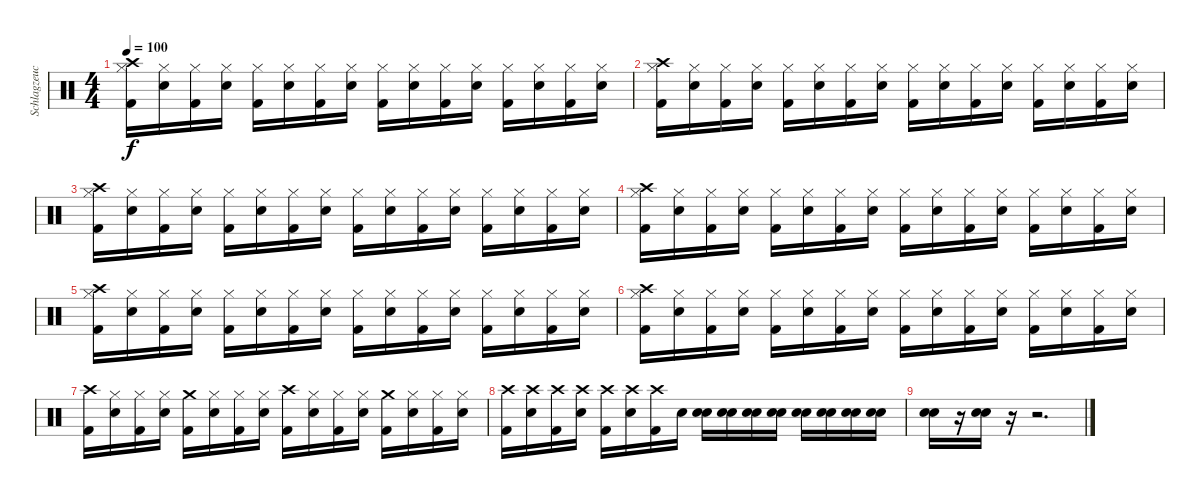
\track ("Schlagzeuch" "Schlagzeuc") {instrument percussion}
\staff {score}
\articulation defaults
\ts (4 4)
\tempo 100
\clef neutral
\ks c
("Hi-Hat (closed)" "Kick (hit) 2" "Crash high (hit)").16{dy f} ("Hi-Hat (closed)" "Snare (hit) 2").16 ("Hi-Hat (closed)" "Kick (hit) 2").16 ("Hi-Hat (closed)" "Snare (hit) 2").16 ("Hi-Hat (closed)" "Kick (hit) 2").16 ("Hi-Hat (closed)" "Snare (hit) 2").16 ("Hi-Hat (closed)" "Kick (hit) 2").16 ("Hi-Hat (closed)" "Snare (hit) 2").16 ("Hi-Hat (closed)" "Kick (hit) 2").16 ("Hi-Hat (closed)" "Snare (hit) 2").16 ("Hi-Hat (closed)" "Kick (hit) 2").16 ("Hi-Hat (closed)" "Snare (hit) 2").16 ("Hi-Hat (closed)" "Kick (hit) 2").16 ("Hi-Hat (closed)" "Snare (hit) 2").16 ("Hi-Hat (closed)" "Kick (hit) 2").16 ("Hi-Hat (closed)" "Snare (hit) 2").16 |
("Hi-Hat (closed)" "Kick (hit) 2" "Crash high (hit)").16 ("Hi-Hat (closed)" "Snare (hit) 2").16 ("Hi-Hat (closed)" "Kick (hit) 2").16 ("Hi-Hat (closed)" "Snare (hit) 2").16 ("Hi-Hat (closed)" "Kick (hit) 2").16 ("Hi-Hat (closed)" "Snare (hit) 2").16 ("Hi-Hat (closed)" "Kick (hit) 2").16 ("Hi-Hat (closed)" "Snare (hit) 2").16 ("Hi-Hat (closed)" "Kick (hit) 2").16 ("Hi-Hat (closed)" "Snare (hit) 2").16 ("Hi-Hat (closed)" "Kick (hit) 2").16 ("Hi-Hat (closed)" "Snare (hit) 2").16 ("Hi-Hat (closed)" "Kick (hit) 2").16 ("Hi-Hat (closed)" "Snare (hit) 2").16 ("Hi-Hat (closed)" "Kick (hit) 2").16 ("Hi-Hat (closed)" "Snare (hit) 2").16 |
("Hi-Hat (closed)" "Kick (hit) 2" "Crash high (hit)").16 ("Hi-Hat (closed)" "Snare (hit) 2").16 ("Hi-Hat (closed)" "Kick (hit) 2").16 ("Hi-Hat (closed)" "Snare (hit) 2").16 ("Hi-Hat (closed)" "Kick (hit) 2").16 ("Hi-Hat (closed)" "Snare (hit) 2").16 ("Hi-Hat (closed)" "Kick (hit) 2").16 ("Hi-Hat (closed)" "Snare (hit) 2").16 ("Hi-Hat (closed)" "Kick (hit) 2").16 ("Hi-Hat (closed)" "Snare (hit) 2").16 ("Hi-Hat (closed)" "Kick (hit) 2").16 ("Hi-Hat (closed)" "Snare (hit) 2").16 ("Hi-Hat (closed)" "Kick (hit) 2").16 ("Hi-Hat (closed)" "Snare (hit) 2").16 ("Hi-Hat (closed)" "Kick (hit) 2").16 ("Hi-Hat (closed)" "Snare (hit) 2").16 |
("Hi-Hat (closed)" "Kick (hit) 2" "Crash high (hit)").16 ("Hi-Hat (closed)" "Snare (hit) 2").16 ("Hi-Hat (closed)" "Kick (hit) 2").16 ("Hi-Hat (closed)" "Snare (hit) 2").16 ("Hi-Hat (closed)" "Kick (hit) 2").16 ("Hi-Hat (closed)" "Snare (hit) 2").16 ("Hi-Hat (closed)" "Kick (hit) 2").16 ("Hi-Hat (closed)" "Snare (hit) 2").16 ("Hi-Hat (closed)" "Kick (hit) 2").16 ("Hi-Hat (closed)" "Snare (hit) 2").16 ("Hi-Hat (closed)" "Kick (hit) 2").16 ("Hi-Hat (closed)" "Snare (hit) 2").16 ("Hi-Hat (closed)" "Kick (hit) 2").16 ("Hi-Hat (closed)" "Snare (hit) 2").16 ("Hi-Hat (closed)" "Kick (hit) 2").16 ("Hi-Hat (closed)" "Snare (hit) 2").16 |
("Hi-Hat (closed)" "Kick (hit) 2" "Crash high (hit)").16 ("Hi-Hat (closed)" "Snare (hit) 2").16 ("Hi-Hat (closed)" "Kick (hit) 2").16 ("Hi-Hat (closed)" "Snare (hit) 2").16 ("Hi-Hat (closed)" "Kick (hit) 2").16 ("Hi-Hat (closed)" "Snare (hit) 2").16 ("Hi-Hat (closed)" "Kick (hit) 2").16 ("Hi-Hat (closed)" "Snare (hit) 2").16 ("Hi-Hat (closed)" "Kick (hit) 2").16 ("Hi-Hat (closed)" "Snare (hit) 2").16 ("Hi-Hat (closed)" "Kick (hit) 2").16 ("Hi-Hat (closed)" "Snare (hit) 2").16 ("Hi-Hat (closed)" "Kick (hit) 2").16 ("Hi-Hat (closed)" "Snare (hit) 2").16 ("Hi-Hat (closed)" "Kick (hit) 2").16 ("Hi-Hat (closed)" "Snare (hit) 2").16 |
("Hi-Hat (closed)" "Kick (hit) 2" "Crash high (hit)").16 ("Hi-Hat (closed)" "Snare (hit) 2").16 ("Hi-Hat (closed)" "Kick (hit) 2").16 ("Hi-Hat (closed)" "Snare (hit) 2").16 ("Hi-Hat (closed)" "Kick (hit) 2").16 ("Hi-Hat (closed)" "Snare (hit) 2").16 ("Hi-Hat (closed)" "Kick (hit) 2").16 ("Hi-Hat (closed)" "Snare (hit) 2").16 ("Hi-Hat (closed)" "Kick (hit) 2").16 ("Hi-Hat (closed)" "Snare (hit) 2").16 ("Hi-Hat (closed)" "Kick (hit) 2").16 ("Hi-Hat (closed)" "Snare (hit) 2").16 ("Hi-Hat (closed)" "Kick (hit) 2").16 ("Hi-Hat (closed)" "Snare (hit) 2").16 ("Hi-Hat (closed)" "Kick (hit) 2").16 ("Hi-Hat (closed)" "Snare (hit) 2").16 |
("Kick (hit) 2" "Crash high (hit)").16 ("Hi-Hat (closed)" "Snare (hit) 2").16 ("Hi-Hat (closed)" "Kick (hit) 2").16 ("Hi-Hat (closed)" "Snare (hit) 2").16 ("Kick (hit) 2" "Crash medium (hit)").16 ("Hi-Hat (closed)" "Snare (hit) 2").16 ("Hi-Hat (closed)" "Kick (hit) 2").16 ("Hi-Hat (closed)" "Snare (hit) 2").16 ("Kick (hit) 2" "Crash high (hit)").16 ("Hi-Hat (closed)" "Snare (hit) 2").16 ("Hi-Hat (closed)" "Kick (hit) 2").16 ("Hi-Hat (closed)" "Snare (hit) 2").16 ("Kick (hit) 2" "Crash medium (hit)").16 ("Hi-Hat (closed)" "Snare (hit) 2").16 ("Hi-Hat (closed)" "Kick (hit) 2").16 ("Hi-Hat (closed)" "Snare (hit) 2").16 |
("Kick (hit) 2" "Crash high (hit)").16 ("Snare (hit) 2" "Crash high (hit)").16 ("Kick (hit) 2" "Crash high (hit)").16 ("Snare (hit) 2" "Crash high (hit)").16 ("Kick (hit) 2" "Crash high (hit)").16 ("Snare (hit) 2" "Crash high (hit)").16 ("Kick (hit) 2" "Crash high (hit)").16 "Snare (hit) 2".16 ("Snare (hit) 2" "Snare (hit) 2").16 ("Snare (hit) 2" "Snare (hit) 2").16 ("Snare (hit) 2" "Snare (hit) 2").16 ("Snare (hit) 2" "Snare (hit) 2").16 ("Snare (hit) 2" "Snare (hit) 2").16 ("Snare (hit) 2" "Snare (hit) 2").16 ("Snare (hit) 2" "Snare (hit) 2").16 ("Snare (hit) 2" "Snare (hit) 2").16 |
("Snare (hit) 2" "Snare (hit) 2").16 r.16 ("Snare (hit) 2" "Snare (hit) 2").16 r.16 r.2{d}
